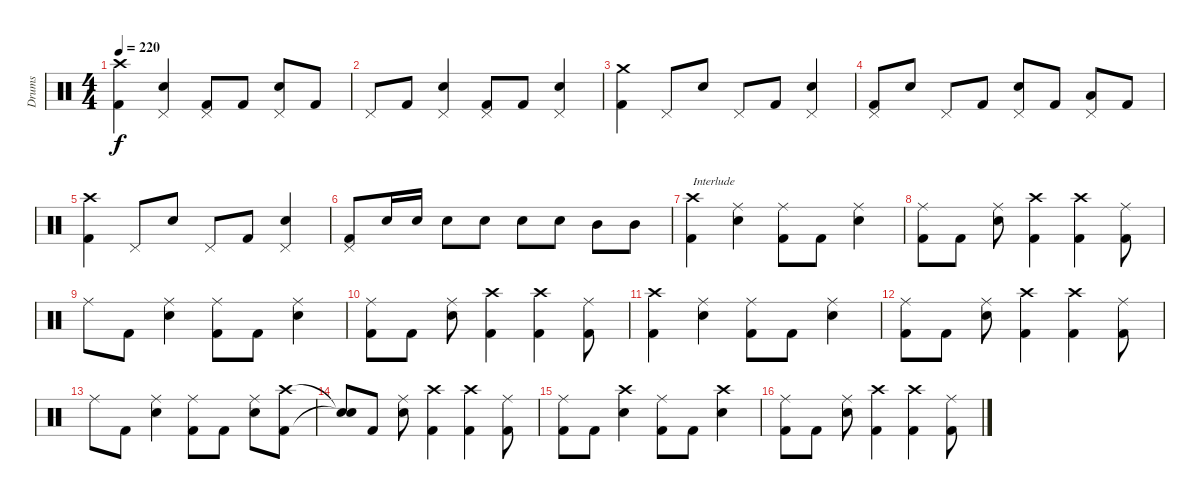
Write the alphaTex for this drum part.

\track ("Drums" "Drums") {instrument percussion}
\staff {score}
\articulation defaults
\ts (4 4)
\tempo 220
\clef neutral
\ks c
("Crash high (hit)" "Kick (hit) 2").4{dy f} ("Pedal Hi-Hat (hit)" "Snare (hit) 2").4 ("Pedal Hi-Hat (hit)" "Kick (hit) 2").8 "Kick (hit) 2".8 ("Pedal Hi-Hat (hit)" "Snare (hit) 2").8 "Kick (hit) 2".8 |
"Pedal Hi-Hat (hit)".8 "Kick (hit) 2".8 ("Pedal Hi-Hat (hit)" "Snare (hit) 2").4 ("Pedal Hi-Hat (hit)" "Kick (hit) 2").8 "Kick (hit) 2".8 ("Pedal Hi-Hat (hit)" "Snare (hit) 2").4 |
("Crash medium (hit)" "Kick (hit) 2").4 "Pedal Hi-Hat (hit)".8 "Snare (hit) 2".8 "Pedal Hi-Hat (hit)".8 "Kick (hit) 2".8 ("Pedal Hi-Hat (hit)" "Snare (hit) 2").4 |
("Pedal Hi-Hat (hit)" "Kick (hit) 2").8 "Snare (hit) 2".8 "Pedal Hi-Hat (hit)".8 "Kick (hit) 2".8 ("Pedal Hi-Hat (hit)" "Snare (hit) 2").8 "Kick (hit) 2".8 ("Pedal Hi-Hat (hit)" "Low Tom (hit)").8 "Kick (hit) 2".8 |
("Crash high (hit)" "Kick (hit) 2").4 "Pedal Hi-Hat (hit)".8 "Snare (hit) 2".8 "Pedal Hi-Hat (hit)".8 "Kick (hit) 2".8 ("Pedal Hi-Hat (hit)" "Snare (hit) 2").4 |
("Pedal Hi-Hat (hit)" "Kick (hit) 2").8 "Snare (hit) 2".16 "Snare (hit) 2".16 "Snare (hit) 2".8 "Snare (hit) 2".8 "Snare (hit) 2".8 "Snare (hit) 2".8 "Mid Tom (hit)".8 "Mid Tom (hit)".8 |
("Crash high (hit)" "Kick (hit) 2").4{txt "Interlude"} ("Ride (middle)" "Snare (hit) 2").4 ("Ride (middle)" "Kick (hit) 2").8 "Kick (hit) 2".8 ("Ride (middle)" "Snare (hit) 2").4 |
("Ride (middle)" "Kick (hit) 2").8 "Kick (hit) 2".8 ("Ride (middle)" "Snare (hit) 2").8 ("Crash high (hit)" "Kick (hit) 2").4 ("Crash high (hit)" "Kick (hit) 2").4 ("Ride (middle)" "Kick (hit) 2").8 |
"Ride (middle)".8 "Kick (hit) 2".8 ("Ride (middle)" "Snare (hit) 2").4 ("Ride (middle)" "Kick (hit) 2").8 "Kick (hit) 2".8 ("Ride (middle)" "Snare (hit) 2").4 |
("Ride (middle)" "Kick (hit) 2").8 "Kick (hit) 2".8 ("Ride (middle)" "Snare (hit) 2").8 ("Crash high (hit)" "Kick (hit) 2").4 ("Crash high (hit)" "Kick (hit) 2").4 ("Ride (middle)" "Kick (hit) 2").8 |
("Crash high (hit)" "Kick (hit) 2").4 ("Ride (middle)" "Snare (hit) 2").4 ("Ride (middle)" "Kick (hit) 2").8 "Kick (hit) 2".8 ("Ride (middle)" "Snare (hit) 2").4 |
("Ride (middle)" "Kick (hit) 2").8 "Kick (hit) 2".8 ("Ride (middle)" "Snare (hit) 2").8 ("Crash high (hit)" "Kick (hit) 2").4 ("Crash high (hit)" "Kick (hit) 2").4 ("Ride (middle)" "Kick (hit) 2").8 |
"Ride (middle)".8 "Kick (hit) 2".8 ("Ride (middle)" "Snare (hit) 2").4 ("Ride (middle)" "Kick (hit) 2").8 "Kick (hit) 2".8 ("Ride (middle)" "Snare (hit) 2").8 ("Crash high (hit)" "Kick (hit) 2").8 |
("Snare (hit)"{t} "Snare (hit)"{t}).8 "Kick (hit) 2".8 ("Ride (middle)" "Snare (hit) 2").8 ("Crash high (hit)" "Kick (hit) 2").4 ("Crash high (hit)" "Kick (hit) 2").4 ("Ride (middle)" "Kick (hit) 2").8 |
("Ride (middle)" "Kick (hit) 2").8 "Kick (hit) 2".8 ("Crash high (hit)" "Snare (hit) 2").4 ("Ride (middle)" "Kick (hit) 2").8 "Kick (hit) 2".8 ("Crash high (hit)" "Snare (hit) 2").4 |
("Ride (middle)" "Kick (hit) 2").8 "Kick (hit) 2".8 ("Ride (middle)" "Snare (hit) 2").8 ("Crash high (hit)" "Kick (hit) 2").4 ("Crash high (hit)" "Kick (hit) 2").4 ("Ride (middle)" "Kick (hit) 2").8
